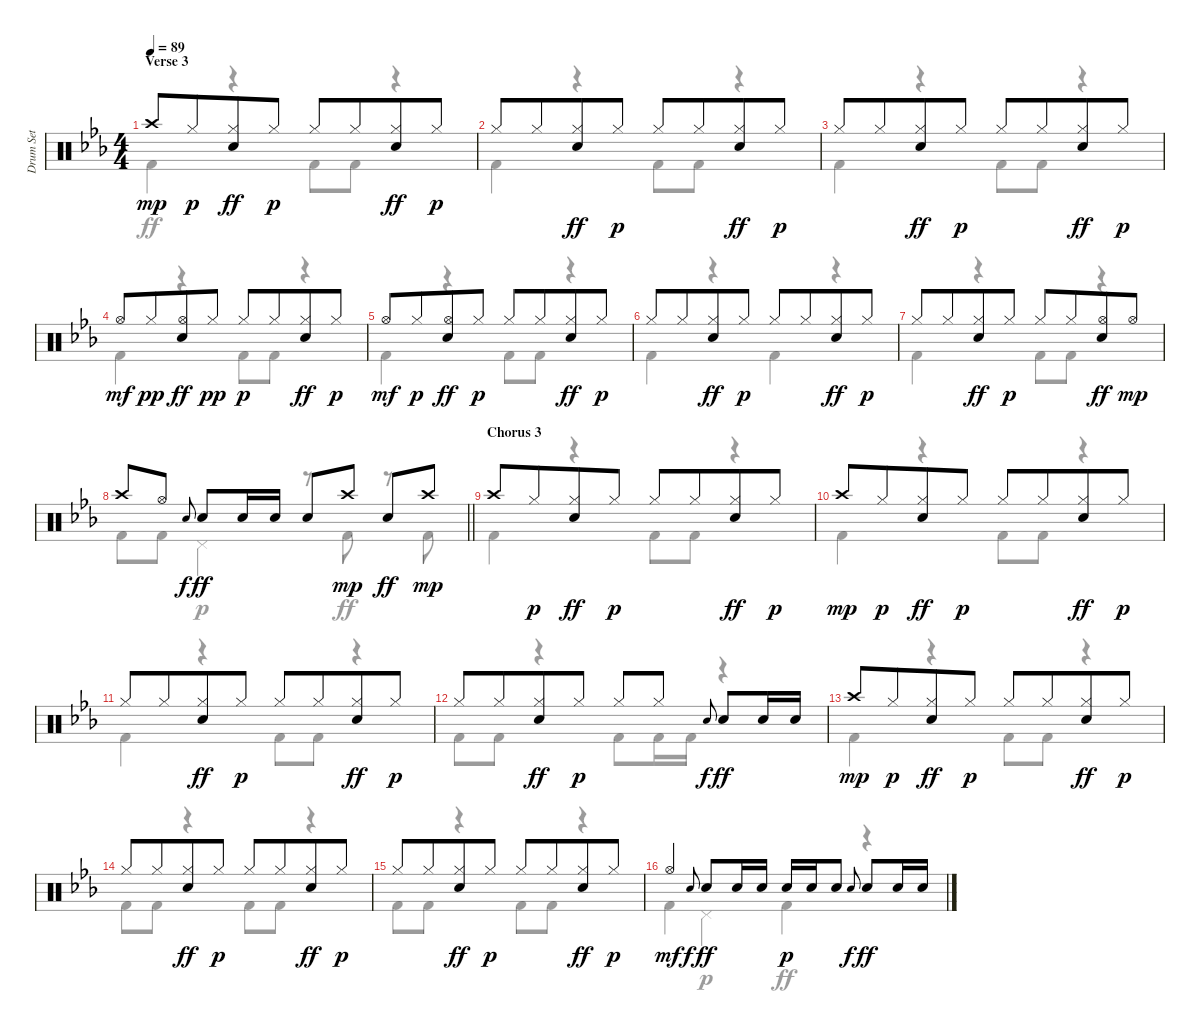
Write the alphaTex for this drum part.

\track ("Drum Set" "Drum Set") {instrument percussion}
\staff {score}
\articulation defaults
\voice
\ts (4 4)
\section ("" "Verse 3")
\tempo 89
\clef neutral
\ks eb "Crash high (hit)".8{dy mp} "Hi-Hat (closed)".8{dy p beam merge}
("Hi-Hat (closed)" "Electric Snare (hit)").8{dy ff} "Hi-Hat (closed)".8{dy p} "Hi-Hat (closed)".8 "Hi-Hat (closed)".8{beam merge} ("Hi-Hat (closed)" "Electric Snare (hit)").8{dy ff} "Hi-Hat (closed)".8{dy p} |
"Hi-Hat (closed)".8 "Hi-Hat (closed)".8{beam merge} ("Hi-Hat (closed)" "Electric Snare (hit)").8{dy ff} "Hi-Hat (closed)".8{dy p} "Hi-Hat (closed)".8 "Hi-Hat (closed)".8{beam merge} ("Hi-Hat (closed)" "Electric Snare (hit)").8{dy ff} "Hi-Hat (closed)".8{dy p} |
"Hi-Hat (closed)".8 "Hi-Hat (closed)".8{beam merge} ("Hi-Hat (closed)" "Electric Snare (hit)").8{dy ff} "Hi-Hat (closed)".8{dy p} "Hi-Hat (closed)".8 "Hi-Hat (closed)".8{beam merge} ("Hi-Hat (closed)" "Electric Snare (hit)").8{dy ff} "Hi-Hat (closed)".8{dy p} |
"Hi-Hat (open)".8{dy mf} "Hi-Hat (closed)".8{dy pp beam merge} ("Hi-Hat (open)" "Electric Snare (hit)").8{dy ff} "Hi-Hat (closed)".8{dy pp} "Hi-Hat (closed)".8{dy p} "Hi-Hat (closed)".8{beam merge} ("Hi-Hat (closed)" "Electric Snare (hit)").8{dy ff} "Hi-Hat (closed)".8{dy p} |
"Hi-Hat (open)".8{dy mf} "Hi-Hat (closed)".8{dy p beam merge} ("Hi-Hat (open)" "Electric Snare (hit)").8{dy ff} "Hi-Hat (closed)".8{dy p} "Hi-Hat (closed)".8 "Hi-Hat (closed)".8{beam merge} ("Hi-Hat (closed)" "Electric Snare (hit)").8{dy ff} "Hi-Hat (closed)".8{dy p} |
"Hi-Hat (closed)".8 "Hi-Hat (closed)".8{beam merge} ("Hi-Hat (closed)" "Electric Snare (hit)").8{dy ff} "Hi-Hat (closed)".8{dy p} "Hi-Hat (closed)".8 "Hi-Hat (closed)".8{beam merge} ("Hi-Hat (closed)" "Electric Snare (hit)").8{dy ff} "Hi-Hat (closed)".8{dy p} |
"Hi-Hat (closed)".8 "Hi-Hat (closed)".8{beam merge} ("Hi-Hat (closed)" "Electric Snare (hit)").8{dy ff} "Hi-Hat (closed)".8{dy p} "Hi-Hat (closed)".8 "Hi-Hat (closed)".8{beam merge} ("Hi-Hat (open)" "Electric Snare (hit)").8{dy ff} "Hi-Hat (open)".8{dy mp} |
\barLineRight lightlight "Crash high (hit)".8 "Hi-Hat (open)".8 "Electric Snare (hit)".8{gr onbeat dy f} "Electric Snare (hit)".8{dy ff} "Electric Snare (hit)".16 "Electric Snare (hit)".16 "Electric Snare (hit)".8 "Crash high (hit)".8{dy mp} "Electric Snare (hit)".8{dy ff} "Crash high (hit)".8{dy mp}
|
\section ("" "Chorus 3")
"Crash high (hit)".8 "Hi-Hat (closed)".8{dy p beam merge} ("Hi-Hat (closed)" "Electric Snare (hit)").8{dy ff} "Hi-Hat (closed)".8{dy p} "Hi-Hat (closed)".8 "Hi-Hat (closed)".8{beam merge} ("Hi-Hat (closed)" "Electric Snare (hit)").8{dy ff} "Hi-Hat (closed)".8{dy p} |
"Crash high (hit)".8{dy mp} "Hi-Hat (closed)".8{dy p beam merge} ("Hi-Hat (closed)" "Electric Snare (hit)").8{dy ff} "Hi-Hat (closed)".8{dy p} "Hi-Hat (closed)".8 "Hi-Hat (closed)".8{beam merge} ("Hi-Hat (closed)" "Electric Snare (hit)").8{dy ff} "Hi-Hat (closed)".8{dy p} |
"Hi-Hat (closed)".8 "Hi-Hat (closed)".8{beam merge} ("Hi-Hat (closed)" "Electric Snare (hit)").8{dy ff} "Hi-Hat (closed)".8{dy p} "Hi-Hat (closed)".8 "Hi-Hat (closed)".8{beam merge} ("Hi-Hat (closed)" "Electric Snare (hit)").8{dy ff} "Hi-Hat (closed)".8{dy p} |
"Hi-Hat (closed)".8 "Hi-Hat (closed)".8{beam merge} ("Hi-Hat (closed)" "Electric Snare (hit)").8{dy ff} "Hi-Hat (closed)".8{dy p} "Hi-Hat (closed)".8 "Hi-Hat (closed)".8 "Electric Snare (hit)".8{gr onbeat dy f beam split} "Electric Snare (hit)".8{dy ff} "Electric Snare (hit)".16 "Electric Snare (hit)".16 |
"Crash high (hit)".8{dy mp} "Hi-Hat (closed)".8{dy p beam merge} ("Hi-Hat (closed)" "Electric Snare (hit)").8{dy ff} "Hi-Hat (closed)".8{dy p} "Hi-Hat (closed)".8 "Hi-Hat (closed)".8{beam merge} ("Hi-Hat (closed)" "Electric Snare (hit)").8{dy ff} "Hi-Hat (closed)".8{dy p} |
"Hi-Hat (closed)".8 "Hi-Hat (closed)".8{beam merge} ("Hi-Hat (closed)" "Electric Snare (hit)").8{dy ff} "Hi-Hat (closed)".8{dy p} "Hi-Hat (closed)".8 "Hi-Hat (closed)".8{beam merge} ("Hi-Hat (closed)" "Electric Snare (hit)").8{dy ff} "Hi-Hat (closed)".8{dy p} |
"Hi-Hat (closed)".8 "Hi-Hat (closed)".8{beam merge} ("Hi-Hat (closed)" "Electric Snare (hit)").8{dy ff} "Hi-Hat (closed)".8{dy p} "Hi-Hat (closed)".8 "Hi-Hat (closed)".8{beam merge} ("Hi-Hat (closed)" "Electric Snare (hit)").8{dy ff} "Hi-Hat (closed)".8{dy p} |
"Hi-Hat (open)".4{dy mf} "Electric Snare (hit)".8{gr onbeat dy f} "Electric Snare (hit)".8{dy ff} "Electric Snare (hit)".16 "Electric Snare (hit)".16 "Electric Snare (hit)".16{dy p} "Electric Snare (hit)".16 "Electric Snare (hit)".8 "Electric Snare (hit)".8{gr onbeat dy f} "Electric Snare (hit)".8{dy ff} "Electric Snare (hit)".16 "Electric Snare (hit)".16
\voice
\clef neutral
\ottava regular
\simile none
\ks eb "Kick (hit) 2".4{dy ff}
r.4 "Kick (hit) 2".8 "Kick (hit) 2".8 r.4 |
"Kick (hit) 2".4 r.4 "Kick (hit) 2".8 "Kick (hit) 2".8 r.4 |
"Kick (hit) 2".4 r.4 "Kick (hit) 2".8 "Kick (hit) 2".8 r.4 |
"Kick (hit) 2".4 r.4 "Kick (hit) 2".8 "Kick (hit) 2".8 r.4 |
"Kick (hit) 2".4 r.4 "Kick (hit) 2".8 "Kick (hit) 2".8 r.4 |
"Kick (hit) 2".4 r.4 "Kick (hit) 2".4 r.4 |
"Kick (hit) 2".4 r.4 "Kick (hit) 2".8 "Kick (hit) 2".8 r.4 |
\barLineRight lightlight "Kick (hit) 2".8 "Kick (hit) 2".8 "Pedal Hi-Hat (hit)".4{dy p}
r.8 "Kick (hit) 2".8{dy ff} r.8 "Kick (hit) 2".8 |
"Kick (hit) 2".4 r.4 "Kick (hit) 2".8 "Kick (hit) 2".8 r.4 |
"Kick (hit) 2".4 r.4 "Kick (hit) 2".8 "Kick (hit) 2".8 r.4 |
"Kick (hit) 2".4 r.4 "Kick (hit) 2".8 "Kick (hit) 2".8 r.4 |
"Kick (hit) 2".8 "Kick (hit) 2".8 r.4 "Kick (hit) 2".8 "Kick (hit) 2".16 "Kick (hit) 2".16 r.4 |
"Kick (hit) 2".4 r.4 "Kick (hit) 2".8 "Kick (hit) 2".8 r.4 |
"Kick (hit) 2".8 "Kick (hit) 2".8 r.4 "Kick (hit) 2".8 "Kick (hit) 2".8 r.4 |
"Kick (hit) 2".8 "Kick (hit) 2".8 r.4 "Kick (hit) 2".8 "Kick (hit) 2".8 r.4 |
"Kick (hit) 2".4 "Pedal Hi-Hat (hit)".4{dy p} "Kick (hit) 2".4{dy ff} r.4
